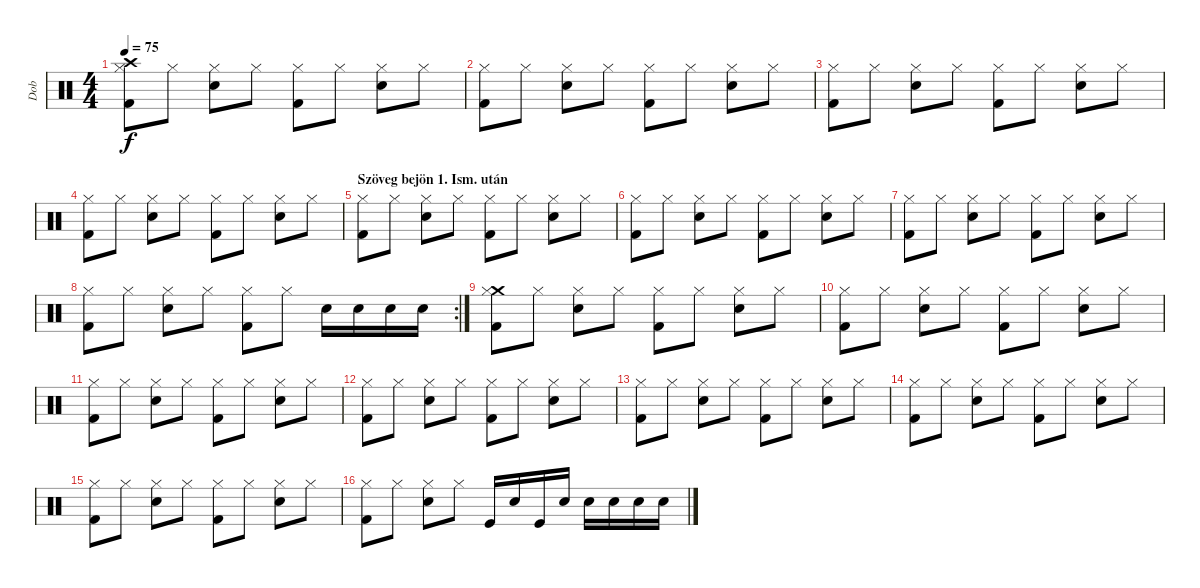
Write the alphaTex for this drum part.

\track ("Dob" "Dob") {instrument percussion}
\staff {score}
\articulation defaults
\ts (4 4)
\tempo 75
\clef neutral
\ks c
("Crash high (hit)" "Kick (hit) 2" "Hi-Hat (closed)").8{dy f} "Hi-Hat (closed)".8 ("Snare (hit) 2" "Hi-Hat (closed)").8 "Hi-Hat (closed)".8 ("Kick (hit) 2" "Hi-Hat (closed)").8 "Hi-Hat (closed)".8 ("Snare (hit) 2" "Hi-Hat (closed)").8 "Hi-Hat (closed)".8 |
("Kick (hit) 2" "Hi-Hat (closed)").8 "Hi-Hat (closed)".8 ("Snare (hit) 2" "Hi-Hat (closed)").8 "Hi-Hat (closed)".8 ("Kick (hit) 2" "Hi-Hat (closed)").8 "Hi-Hat (closed)".8 ("Snare (hit) 2" "Hi-Hat (closed)").8 "Hi-Hat (closed)".8 |
("Kick (hit) 2" "Hi-Hat (closed)").8 "Hi-Hat (closed)".8 ("Snare (hit) 2" "Hi-Hat (closed)").8 "Hi-Hat (closed)".8 ("Kick (hit) 2" "Hi-Hat (closed)").8 "Hi-Hat (closed)".8 ("Snare (hit) 2" "Hi-Hat (closed)").8 "Hi-Hat (closed)".8 |
("Kick (hit) 2" "Hi-Hat (closed)").8 "Hi-Hat (closed)".8 ("Snare (hit) 2" "Hi-Hat (closed)").8 "Hi-Hat (closed)".8 ("Kick (hit) 2" "Hi-Hat (closed)").8 "Hi-Hat (closed)".8 ("Snare (hit) 2" "Hi-Hat (closed)").8 "Hi-Hat (closed)".8 |
\section ("" "Szöveg bejön 1. Ism. után")
("Kick (hit) 2" "Hi-Hat (closed)").8 "Hi-Hat (closed)".8 ("Snare (hit) 2" "Hi-Hat (closed)").8 "Hi-Hat (closed)".8 ("Kick (hit) 2" "Hi-Hat (closed)").8 "Hi-Hat (closed)".8 ("Snare (hit) 2" "Hi-Hat (closed)").8 "Hi-Hat (closed)".8 |
("Kick (hit) 2" "Hi-Hat (closed)").8 "Hi-Hat (closed)".8 ("Snare (hit) 2" "Hi-Hat (closed)").8 "Hi-Hat (closed)".8 ("Kick (hit) 2" "Hi-Hat (closed)").8 "Hi-Hat (closed)".8 ("Snare (hit) 2" "Hi-Hat (closed)").8 "Hi-Hat (closed)".8 |
("Kick (hit) 2" "Hi-Hat (closed)").8 "Hi-Hat (closed)".8 ("Snare (hit) 2" "Hi-Hat (closed)").8 "Hi-Hat (closed)".8 ("Kick (hit) 2" "Hi-Hat (closed)").8 "Hi-Hat (closed)".8 ("Snare (hit) 2" "Hi-Hat (closed)").8 "Hi-Hat (closed)".8 |
\rc 2
("Kick (hit) 2" "Hi-Hat (closed)").8 "Hi-Hat (closed)".8 ("Snare (hit) 2" "Hi-Hat (closed)").8 "Hi-Hat (closed)".8 ("Kick (hit) 2" "Hi-Hat (closed)").8 "Hi-Hat (closed)".8 "Snare (hit) 2".16 "Snare (hit) 2".16 "Snare (hit) 2".16 "Snare (hit) 2".16 |
("Crash medium (hit)" "Kick (hit) 2" "Hi-Hat (closed)").8 "Hi-Hat (closed)".8 ("Snare (hit) 2" "Hi-Hat (closed)").8 "Hi-Hat (closed)".8 ("Kick (hit) 2" "Hi-Hat (closed)").8 "Hi-Hat (closed)".8 ("Snare (hit) 2" "Hi-Hat (closed)").8 "Hi-Hat (closed)".8 |
("Kick (hit) 2" "Hi-Hat (closed)").8 "Hi-Hat (closed)".8 ("Snare (hit) 2" "Hi-Hat (closed)").8 "Hi-Hat (closed)".8 ("Kick (hit) 2" "Hi-Hat (closed)").8 "Hi-Hat (closed)".8 ("Snare (hit) 2" "Hi-Hat (closed)").8 "Hi-Hat (closed)".8 |
("Kick (hit) 2" "Hi-Hat (closed)").8 "Hi-Hat (closed)".8 ("Snare (hit) 2" "Hi-Hat (closed)").8 "Hi-Hat (closed)".8 ("Kick (hit) 2" "Hi-Hat (closed)").8 "Hi-Hat (closed)".8 ("Snare (hit) 2" "Hi-Hat (closed)").8 "Hi-Hat (closed)".8 |
("Kick (hit) 2" "Hi-Hat (closed)").8 "Hi-Hat (closed)".8 ("Snare (hit) 2" "Hi-Hat (closed)").8 "Hi-Hat (closed)".8 ("Kick (hit) 2" "Hi-Hat (closed)").8 "Hi-Hat (closed)".8 ("Snare (hit) 2" "Hi-Hat (closed)").8 "Hi-Hat (closed)".8 |
("Kick (hit) 2" "Hi-Hat (closed)").8 "Hi-Hat (closed)".8 ("Snare (hit) 2" "Hi-Hat (closed)").8 "Hi-Hat (closed)".8 ("Kick (hit) 2" "Hi-Hat (closed)").8 "Hi-Hat (closed)".8 ("Snare (hit) 2" "Hi-Hat (closed)").8 "Hi-Hat (closed)".8 |
("Kick (hit) 2" "Hi-Hat (closed)").8 "Hi-Hat (closed)".8 ("Snare (hit) 2" "Hi-Hat (closed)").8 "Hi-Hat (closed)".8 ("Kick (hit) 2" "Hi-Hat (closed)").8 "Hi-Hat (closed)".8 ("Snare (hit) 2" "Hi-Hat (closed)").8 "Hi-Hat (closed)".8 |
("Kick (hit) 2" "Hi-Hat (closed)").8 "Hi-Hat (closed)".8 ("Snare (hit) 2" "Hi-Hat (closed)").8 "Hi-Hat (closed)".8 ("Kick (hit) 2" "Hi-Hat (closed)").8 "Hi-Hat (closed)".8 ("Snare (hit) 2" "Hi-Hat (closed)").8 "Hi-Hat (closed)".8 |
("Kick (hit) 2" "Hi-Hat (closed)").8 "Hi-Hat (closed)".8 ("Snare (hit) 2" "Hi-Hat (closed)").8 "Hi-Hat (closed)".8 "Kick (hit)".16 "Snare (hit) 2".16 "Kick (hit)".16 "Snare (hit) 2".16 "Snare (hit) 2".16 "Snare (hit) 2".16 "Snare (hit) 2".16 "Snare (hit) 2".16
